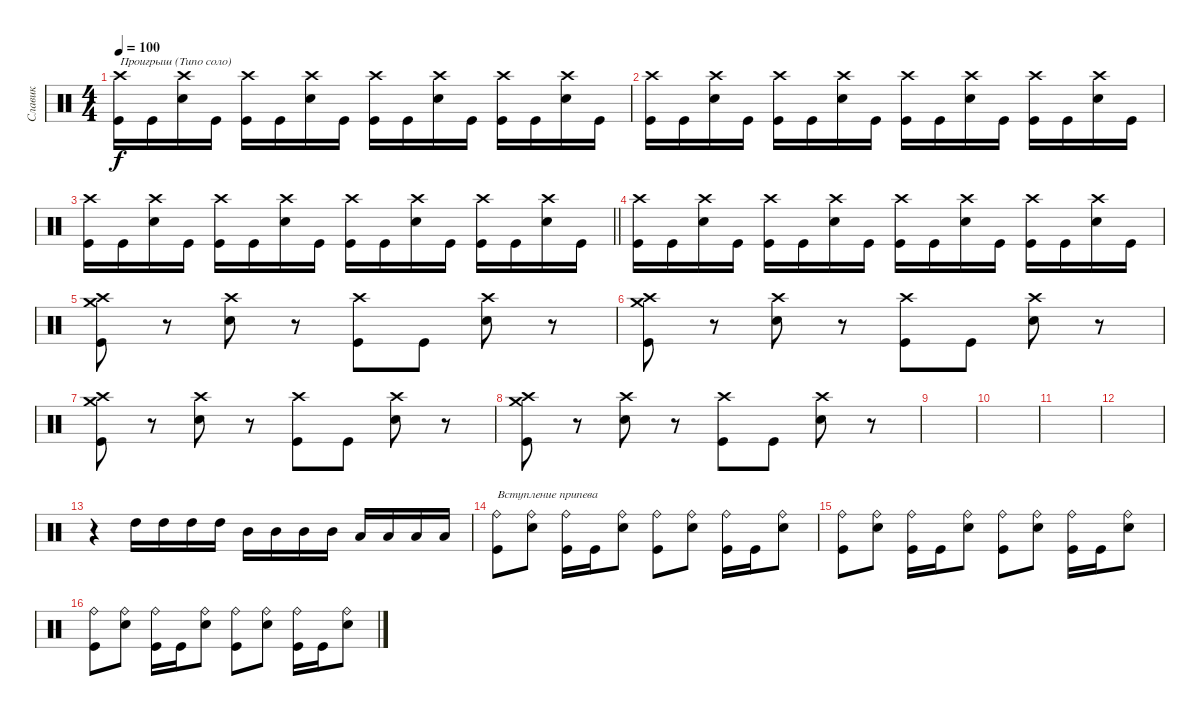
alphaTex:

\track ("Славик" "Славик") {instrument percussion}
\staff {score}
\articulation defaults
\ts (4 4)
\tempo 100
\clef neutral
\ks c
("Kick (hit)" "Crash high (hit)").16{txt "Проигрыш (Типо соло)" dy f} "Kick (hit)".16 ("Electric Snare (hit)" "Crash high (hit)").16 "Kick (hit)".16 ("Kick (hit)" "Crash high (hit)").16 "Kick (hit)".16 ("Electric Snare (hit)" "Crash high (hit)").16 "Kick (hit)".16 ("Kick (hit)" "Crash high (hit)").16 "Kick (hit)".16 ("Electric Snare (hit)" "Crash high (hit)").16 "Kick (hit)".16 ("Kick (hit)" "Crash high (hit)").16 "Kick (hit)".16 ("Electric Snare (hit)" "Crash high (hit)").16 "Kick (hit)".16 |
("Kick (hit)" "Crash high (hit)").16 "Kick (hit)".16 ("Electric Snare (hit)" "Crash high (hit)").16 "Kick (hit)".16 ("Kick (hit)" "Crash high (hit)").16 "Kick (hit)".16 ("Electric Snare (hit)" "Crash high (hit)").16 "Kick (hit)".16 ("Kick (hit)" "Crash high (hit)").16 "Kick (hit)".16 ("Electric Snare (hit)" "Crash high (hit)").16 "Kick (hit)".16 ("Kick (hit)" "Crash high (hit)").16 "Kick (hit)".16 ("Electric Snare (hit)" "Crash high (hit)").16 "Kick (hit)".16 |
\barLineRight lightlight
("Kick (hit)" "Crash high (hit)").16 "Kick (hit)".16 ("Electric Snare (hit)" "Crash high (hit)").16 "Kick (hit)".16 ("Kick (hit)" "Crash high (hit)").16 "Kick (hit)".16 ("Electric Snare (hit)" "Crash high (hit)").16 "Kick (hit)".16 ("Kick (hit)" "Crash high (hit)").16 "Kick (hit)".16 ("Electric Snare (hit)" "Crash high (hit)").16 "Kick (hit)".16 ("Kick (hit)" "Crash high (hit)").16 "Kick (hit)".16 ("Electric Snare (hit)" "Crash high (hit)").16 "Kick (hit)".16 |
("Kick (hit)" "Crash high (hit)").16 "Kick (hit)".16 ("Electric Snare (hit)" "Crash high (hit)").16 "Kick (hit)".16 ("Kick (hit)" "Crash high (hit)").16 "Kick (hit)".16 ("Electric Snare (hit)" "Crash high (hit)").16 "Kick (hit)".16 ("Kick (hit)" "Crash high (hit)").16 "Kick (hit)".16 ("Electric Snare (hit)" "Crash high (hit)").16 "Kick (hit)".16 ("Kick (hit)" "Crash high (hit)").16 "Kick (hit)".16 ("Electric Snare (hit)" "Crash high (hit)").16 "Kick (hit)".16 |
("Kick (hit)" "Crash high (hit)" "Crash medium (hit)").8 r.8 ("Electric Snare (hit)" "Crash high (hit)").8 r.8 ("Kick (hit)" "Crash high (hit)").8 "Kick (hit)".8 ("Electric Snare (hit)" "Crash high (hit)").8 r.8 |
("Kick (hit)" "Crash high (hit)" "Crash medium (hit)").8 r.8 ("Electric Snare (hit)" "Crash high (hit)").8 r.8 ("Kick (hit)" "Crash high (hit)").8 "Kick (hit)".8 ("Electric Snare (hit)" "Crash high (hit)").8 r.8 |
("Kick (hit)" "Crash high (hit)" "Crash medium (hit)").8 r.8 ("Electric Snare (hit)" "Crash high (hit)").8 r.8 ("Kick (hit)" "Crash high (hit)").8 "Kick (hit)".8 ("Electric Snare (hit)" "Crash high (hit)").8 r.8 |
("Kick (hit)" "Crash high (hit)" "Crash medium (hit)").8 r.8 ("Electric Snare (hit)" "Crash high (hit)").8 r.8 ("Kick (hit)" "Crash high (hit)").8 "Kick (hit)".8 ("Electric Snare (hit)" "Crash high (hit)").8 r.8 |
|
|
|
|
r.4 "High Tom (hit)".16 "High Tom (hit)".16 "High Tom (hit)".16 "High Tom (hit)".16 "Mid Tom (hit)".16 "Mid Tom (hit)".16 "Mid Tom (hit)".16 "Mid Tom (hit)".16 "Low Tom (hit)".16 "Low Tom (hit)".16 "Low Tom (hit)".16 "Low Tom (hit)".16 |
("Kick (hit)" "Ride (bell)").8{txt "Вступление припева"} ("Electric Snare (hit)" "Ride (bell)").8 ("Kick (hit)" "Ride (bell)").16 "Kick (hit)".16 ("Electric Snare (hit)" "Ride (bell)").8 ("Kick (hit)" "Ride (bell)").8 ("Electric Snare (hit)" "Ride (bell)").8 ("Kick (hit)" "Ride (bell)").16 "Kick (hit)".16 ("Electric Snare (hit)" "Ride (bell)").8 |
("Kick (hit)" "Ride (bell)").8 ("Electric Snare (hit)" "Ride (bell)").8 ("Kick (hit)" "Ride (bell)").16 "Kick (hit)".16 ("Electric Snare (hit)" "Ride (bell)").8 ("Kick (hit)" "Ride (bell)").8 ("Electric Snare (hit)" "Ride (bell)").8 ("Kick (hit)" "Ride (bell)").16 "Kick (hit)".16 ("Electric Snare (hit)" "Ride (bell)").8 |
("Kick (hit)" "Ride (bell)").8 ("Electric Snare (hit)" "Ride (bell)").8 ("Kick (hit)" "Ride (bell)").16 "Kick (hit)".16 ("Electric Snare (hit)" "Ride (bell)").8 ("Kick (hit)" "Ride (bell)").8 ("Electric Snare (hit)" "Ride (bell)").8 ("Kick (hit)" "Ride (bell)").16 "Kick (hit)".16 ("Electric Snare (hit)" "Ride (bell)").8
